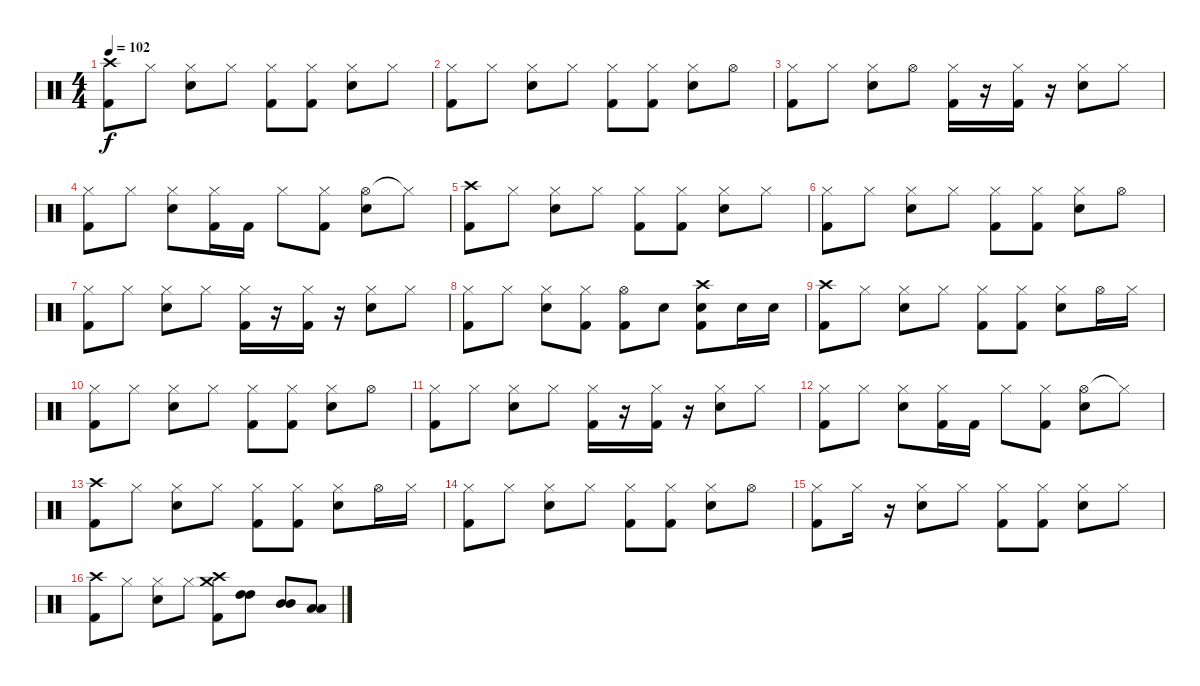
\track "" {instrument percussion}
\staff {score}
\articulation defaults
\ts (4 4)
\tempo 102
\clef neutral
\ks c
("Crash high (hit)" "Kick (hit) 2").8{dy f} "Hi-Hat (closed)".8 ("Hi-Hat (closed)" "Snare (hit) 2").8 "Hi-Hat (closed)".8 ("Hi-Hat (closed)" "Kick (hit) 2").8 ("Hi-Hat (closed)" "Kick (hit) 2").8 ("Hi-Hat (closed)" "Snare (hit) 2").8 "Hi-Hat (closed)".8 |
("Hi-Hat (closed)" "Kick (hit) 2").8 "Hi-Hat (closed)".8 ("Hi-Hat (closed)" "Snare (hit) 2").8 "Hi-Hat (closed)".8 ("Hi-Hat (closed)" "Kick (hit) 2").8 ("Hi-Hat (closed)" "Kick (hit) 2").8 ("Hi-Hat (closed)" "Snare (hit) 2").8 "Hi-Hat (open)".8 |
("Hi-Hat (closed)" "Kick (hit) 2").8 "Hi-Hat (closed)".8 ("Hi-Hat (closed)" "Snare (hit) 2").8 "Hi-Hat (open)".8 ("Hi-Hat (closed)" "Kick (hit) 2").16 r.16 ("Hi-Hat (closed)" "Kick (hit) 2").16 r.16 ("Hi-Hat (closed)" "Snare (hit) 2").8 "Hi-Hat (closed)".8 |
("Hi-Hat (closed)" "Kick (hit) 2").8 "Hi-Hat (closed)".8 ("Hi-Hat (closed)" "Snare (hit) 2").8 ("Hi-Hat (closed)" "Kick (hit) 2").16 "Kick (hit) 2".16 "Hi-Hat (closed)".8 ("Hi-Hat (closed)" "Kick (hit) 2").8 ("Hi-Hat (open)" "Snare (hit) 2").8 "Hi-Hat (closed)"{t}.8 |
("Crash high (hit)" "Kick (hit) 2").8 "Hi-Hat (closed)".8 ("Hi-Hat (closed)" "Snare (hit) 2").8 "Hi-Hat (closed)".8 ("Hi-Hat (closed)" "Kick (hit) 2").8 ("Hi-Hat (closed)" "Kick (hit) 2").8 ("Hi-Hat (closed)" "Snare (hit) 2").8 "Hi-Hat (closed)".8 |
("Hi-Hat (closed)" "Kick (hit) 2").8 "Hi-Hat (closed)".8 ("Hi-Hat (closed)" "Snare (hit) 2").8 "Hi-Hat (closed)".8 ("Hi-Hat (closed)" "Kick (hit) 2").8 ("Hi-Hat (closed)" "Kick (hit) 2").8 ("Hi-Hat (closed)" "Snare (hit) 2").8 "Hi-Hat (open)".8 |
("Hi-Hat (closed)" "Kick (hit) 2").8 "Hi-Hat (closed)".8 ("Hi-Hat (closed)" "Snare (hit) 2").8 "Hi-Hat (closed)".8 ("Hi-Hat (closed)" "Kick (hit) 2").16 r.16 ("Hi-Hat (closed)" "Kick (hit) 2").16 r.16 ("Hi-Hat (closed)" "Snare (hit) 2").8 "Hi-Hat (closed)".8 |
("Hi-Hat (closed)" "Kick (hit) 2").8 "Hi-Hat (closed)".8 ("Snare (hit) 2" "Hi-Hat (closed)").8 ("Hi-Hat (closed)" "Kick (hit) 2").8 ("Hi-Hat (open)" "Kick (hit) 2").8 "Snare (hit) 2".8 ("Crash high (hit)" "Snare (hit) 2" "Kick (hit) 2").8 "Snare (hit) 2".16 "Snare (hit) 2".16 |
("Crash high (hit)" "Kick (hit) 2").8 "Hi-Hat (closed)".8 ("Hi-Hat (closed)" "Snare (hit) 2").8 "Hi-Hat (closed)".8 ("Hi-Hat (closed)" "Kick (hit) 2").8 ("Hi-Hat (closed)" "Kick (hit) 2").8 ("Hi-Hat (closed)" "Snare (hit) 2").8 "Hi-Hat (open)".16 "Hi-Hat (closed)".16 |
("Hi-Hat (closed)" "Kick (hit) 2").8 "Hi-Hat (closed)".8 ("Hi-Hat (closed)" "Snare (hit) 2").8 "Hi-Hat (closed)".8 ("Hi-Hat (closed)" "Kick (hit) 2").8 ("Hi-Hat (closed)" "Kick (hit) 2").8 ("Hi-Hat (closed)" "Snare (hit) 2").8 "Hi-Hat (open)".8 |
("Hi-Hat (closed)" "Kick (hit) 2").8 "Hi-Hat (closed)".8 ("Hi-Hat (closed)" "Snare (hit) 2").8 "Hi-Hat (closed)".8 ("Hi-Hat (closed)" "Kick (hit) 2").16 r.16 ("Hi-Hat (closed)" "Kick (hit) 2").16 r.16 ("Hi-Hat (closed)" "Snare (hit) 2").8 "Hi-Hat (closed)".8 |
("Hi-Hat (closed)" "Kick (hit) 2").8 "Hi-Hat (closed)".8 ("Hi-Hat (closed)" "Snare (hit) 2").8 ("Hi-Hat (closed)" "Kick (hit) 2").16 "Kick (hit) 2".16 "Hi-Hat (closed)".8 ("Hi-Hat (closed)" "Kick (hit) 2").8 ("Hi-Hat (open)" "Snare (hit) 2").8 "Hi-Hat (closed)"{t}.8 |
("Crash high (hit)" "Kick (hit) 2").8 "Hi-Hat (closed)".8 ("Hi-Hat (closed)" "Snare (hit) 2").8 "Hi-Hat (closed)".8 ("Hi-Hat (closed)" "Kick (hit) 2").8 ("Hi-Hat (closed)" "Kick (hit) 2").8 ("Hi-Hat (closed)" "Snare (hit) 2").8 "Hi-Hat (open)".16 "Hi-Hat (closed)".16 |
("Hi-Hat (closed)" "Kick (hit) 2").8 "Hi-Hat (closed)".8 ("Hi-Hat (closed)" "Snare (hit) 2").8 "Hi-Hat (closed)".8 ("Hi-Hat (closed)" "Kick (hit) 2").8 ("Hi-Hat (closed)" "Kick (hit) 2").8 ("Hi-Hat (closed)" "Snare (hit) 2").8 "Hi-Hat (open)".8 |
("Hi-Hat (closed)" "Kick (hit) 2").8 "Hi-Hat (closed)".16 r.16 ("Hi-Hat (closed)" "Snare (hit) 2").8 "Hi-Hat (closed)".8 ("Hi-Hat (closed)" "Kick (hit) 2").8 ("Hi-Hat (closed)" "Kick (hit) 2").8 ("Hi-Hat (closed)" "Snare (hit) 2").8 "Hi-Hat (closed)".8 |
("Crash high (hit)" "Kick (hit) 2").8 "Hi-Hat (closed)".8 ("Hi-Hat (closed)" "Snare (hit) 2").8 "Hi-Hat (closed)".8 ("Crash high (hit)" "Crash medium (hit)" "Kick (hit) 2").8 ("High Tom (hit)" "High Tom (hit)").8 ("Mid Tom (hit)" "Mid Tom (hit)").8 ("Low Tom (hit)" "Low Tom (hit)").8
